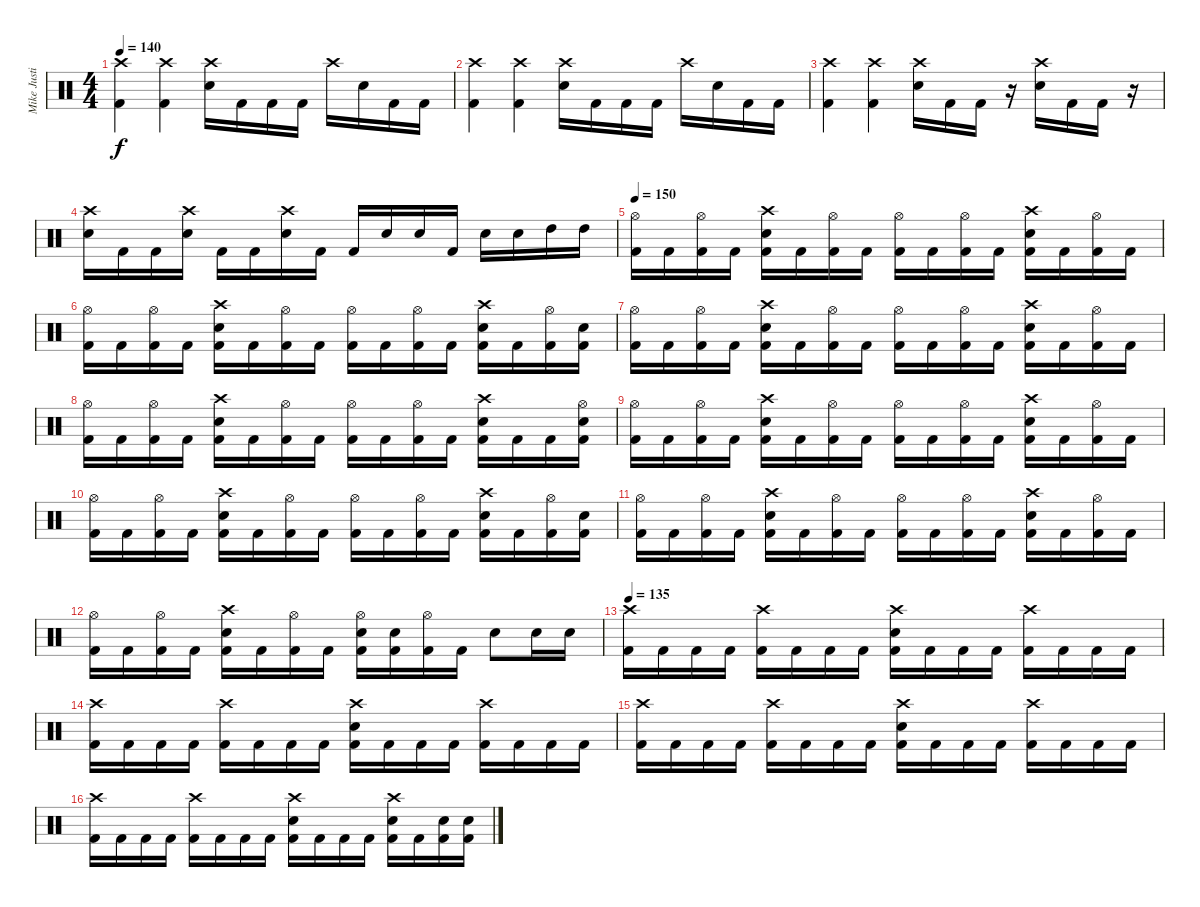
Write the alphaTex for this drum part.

\track ("Mike Justian" "Mike Justi") {instrument percussion}
\staff {score}
\articulation defaults
\ts (4 4)
\tempo 140
\clef neutral
\ks c
("Crash high (hit)" "Kick (hit) 2").4{dy f} ("Crash high (hit)" "Kick (hit) 2").4 ("Crash high (hit)" "Electric Snare (hit)").16 "Kick (hit) 2".16 "Kick (hit) 2".16 "Kick (hit) 2".16 "Crash high (hit)".16 "Electric Snare (hit)".16 "Kick (hit) 2".16 "Kick (hit) 2".16 |
("Crash high (hit)" "Kick (hit) 2").4 ("Crash high (hit)" "Kick (hit) 2").4 ("Crash high (hit)" "Electric Snare (hit)").16 "Kick (hit) 2".16 "Kick (hit) 2".16 "Kick (hit) 2".16 "Crash high (hit)".16 "Electric Snare (hit)".16 "Kick (hit) 2".16 "Kick (hit) 2".16 |
("Crash high (hit)" "Kick (hit) 2").4 ("Crash high (hit)" "Kick (hit) 2").4 ("Crash high (hit)" "Electric Snare (hit)").16 "Kick (hit) 2".16 "Kick (hit) 2".16 r.16 ("Crash high (hit)" "Electric Snare (hit)").16 "Kick (hit) 2".16 "Kick (hit) 2".16 r.16 |
("Crash high (hit)" "Electric Snare (hit)").16 "Kick (hit) 2".16 "Kick (hit) 2".16 ("Crash high (hit)" "Electric Snare (hit)").16 "Kick (hit) 2".16 "Kick (hit) 2".16 ("Crash high (hit)" "Electric Snare (hit)").16 "Kick (hit) 2".16 "Kick (hit) 2".16 "Electric Snare (hit)".16 "Electric Snare (hit)".16 "Kick (hit) 2".16 "Electric Snare (hit)".16 "Electric Snare (hit)".16 "High Tom (hit)".16 "High Tom (hit)".16 |
\tempo 150
("Hi-Hat (open)" "Kick (hit) 2").16 "Kick (hit) 2".16 ("Hi-Hat (open)" "Kick (hit) 2").16 "Kick (hit) 2".16 ("Crash high (hit)" "Electric Snare (hit)" "Kick (hit) 2").16 "Kick (hit) 2".16 ("Hi-Hat (open)" "Kick (hit) 2").16 "Kick (hit) 2".16 ("Hi-Hat (open)" "Kick (hit) 2").16 "Kick (hit) 2".16 ("Hi-Hat (open)" "Kick (hit) 2").16 "Kick (hit) 2".16 ("Crash high (hit)" "Electric Snare (hit)" "Kick (hit) 2").16 "Kick (hit) 2".16 ("Hi-Hat (open)" "Kick (hit) 2").16 "Kick (hit) 2".16 |
("Hi-Hat (open)" "Kick (hit) 2").16 "Kick (hit) 2".16 ("Hi-Hat (open)" "Kick (hit) 2").16 "Kick (hit) 2".16 ("Crash high (hit)" "Electric Snare (hit)" "Kick (hit) 2").16 "Kick (hit) 2".16 ("Hi-Hat (open)" "Kick (hit) 2").16 "Kick (hit) 2".16 ("Hi-Hat (open)" "Kick (hit) 2").16 "Kick (hit) 2".16 ("Hi-Hat (open)" "Kick (hit) 2").16 "Kick (hit) 2".16 ("Crash high (hit)" "Electric Snare (hit)" "Kick (hit) 2").16 "Kick (hit) 2".16 ("Hi-Hat (open)" "Kick (hit) 2").16 ("Electric Snare (hit)" "Kick (hit) 2").16 |
("Hi-Hat (open)" "Kick (hit) 2").16 "Kick (hit) 2".16 ("Hi-Hat (open)" "Kick (hit) 2").16 "Kick (hit) 2".16 ("Crash high (hit)" "Electric Snare (hit)" "Kick (hit) 2").16 "Kick (hit) 2".16 ("Hi-Hat (open)" "Kick (hit) 2").16 "Kick (hit) 2".16 ("Hi-Hat (open)" "Kick (hit) 2").16 "Kick (hit) 2".16 ("Hi-Hat (open)" "Kick (hit) 2").16 "Kick (hit) 2".16 ("Crash high (hit)" "Electric Snare (hit)" "Kick (hit) 2").16 "Kick (hit) 2".16 ("Hi-Hat (open)" "Kick (hit) 2").16 "Kick (hit) 2".16 |
("Hi-Hat (open)" "Kick (hit) 2").16 "Kick (hit) 2".16 ("Hi-Hat (open)" "Kick (hit) 2").16 "Kick (hit) 2".16 ("Crash high (hit)" "Electric Snare (hit)" "Kick (hit) 2").16 "Kick (hit) 2".16 ("Hi-Hat (open)" "Kick (hit) 2").16 "Kick (hit) 2".16 ("Hi-Hat (open)" "Kick (hit) 2").16 "Kick (hit) 2".16 ("Hi-Hat (open)" "Kick (hit) 2").16 "Kick (hit) 2".16 ("Crash high (hit)" "Electric Snare (hit)" "Kick (hit) 2").16 "Kick (hit) 2".16 "Kick (hit) 2".16 ("Hi-Hat (open)" "Electric Snare (hit)" "Kick (hit) 2").16 |
("Hi-Hat (open)" "Kick (hit) 2").16 "Kick (hit) 2".16 ("Hi-Hat (open)" "Kick (hit) 2").16 "Kick (hit) 2".16 ("Crash high (hit)" "Electric Snare (hit)" "Kick (hit) 2").16 "Kick (hit) 2".16 ("Hi-Hat (open)" "Kick (hit) 2").16 "Kick (hit) 2".16 ("Hi-Hat (open)" "Kick (hit) 2").16 "Kick (hit) 2".16 ("Hi-Hat (open)" "Kick (hit) 2").16 "Kick (hit) 2".16 ("Crash high (hit)" "Electric Snare (hit)" "Kick (hit) 2").16 "Kick (hit) 2".16 ("Hi-Hat (open)" "Kick (hit) 2").16 "Kick (hit) 2".16 |
("Hi-Hat (open)" "Kick (hit) 2").16 "Kick (hit) 2".16 ("Hi-Hat (open)" "Kick (hit) 2").16 "Kick (hit) 2".16 ("Crash high (hit)" "Electric Snare (hit)" "Kick (hit) 2").16 "Kick (hit) 2".16 ("Hi-Hat (open)" "Kick (hit) 2").16 "Kick (hit) 2".16 ("Hi-Hat (open)" "Kick (hit) 2").16 "Kick (hit) 2".16 ("Hi-Hat (open)" "Kick (hit) 2").16 "Kick (hit) 2".16 ("Crash high (hit)" "Electric Snare (hit)" "Kick (hit) 2").16 "Kick (hit) 2".16 ("Hi-Hat (open)" "Kick (hit) 2").16 ("Electric Snare (hit)" "Kick (hit) 2").16 |
("Hi-Hat (open)" "Kick (hit) 2").16 "Kick (hit) 2".16 ("Hi-Hat (open)" "Kick (hit) 2").16 "Kick (hit) 2".16 ("Crash high (hit)" "Electric Snare (hit)" "Kick (hit) 2").16 "Kick (hit) 2".16 ("Hi-Hat (open)" "Kick (hit) 2").16 "Kick (hit) 2".16 ("Hi-Hat (open)" "Kick (hit) 2").16 "Kick (hit) 2".16 ("Hi-Hat (open)" "Kick (hit) 2").16 "Kick (hit) 2".16 ("Crash high (hit)" "Electric Snare (hit)" "Kick (hit) 2").16 "Kick (hit) 2".16 ("Hi-Hat (open)" "Kick (hit) 2").16 "Kick (hit) 2".16 |
("Hi-Hat (open)" "Kick (hit) 2").16 "Kick (hit) 2".16 ("Hi-Hat (open)" "Kick (hit) 2").16 "Kick (hit) 2".16 ("Crash high (hit)" "Electric Snare (hit)" "Kick (hit) 2").16 "Kick (hit) 2".16 ("Hi-Hat (open)" "Kick (hit) 2").16 "Kick (hit) 2".16 ("Hi-Hat (open)" "Electric Snare (hit)" "Kick (hit) 2").16 ("Electric Snare (hit)" "Kick (hit) 2").16 ("Hi-Hat (open)" "Kick (hit) 2").16 "Kick (hit) 2".16 "Electric Snare (hit)".8 "Electric Snare (hit)".16 "Electric Snare (hit)".16 |
\tempo 135
("Crash high (hit)" "Kick (hit) 2").16 "Kick (hit) 2".16 "Kick (hit) 2".16 "Kick (hit) 2".16 ("Crash high (hit)" "Kick (hit) 2").16 "Kick (hit) 2".16 "Kick (hit) 2".16 "Kick (hit) 2".16 ("Crash high (hit)" "Electric Snare (hit)" "Kick (hit) 2").16 "Kick (hit) 2".16 "Kick (hit) 2".16 "Kick (hit) 2".16 ("Crash high (hit)" "Kick (hit) 2").16 "Kick (hit) 2".16 "Kick (hit) 2".16 "Kick (hit) 2".16 |
("Crash high (hit)" "Kick (hit) 2").16 "Kick (hit) 2".16 "Kick (hit) 2".16 "Kick (hit) 2".16 ("Crash high (hit)" "Kick (hit) 2").16 "Kick (hit) 2".16 "Kick (hit) 2".16 "Kick (hit) 2".16 ("Crash high (hit)" "Electric Snare (hit)" "Kick (hit) 2").16 "Kick (hit) 2".16 "Kick (hit) 2".16 "Kick (hit) 2".16 ("Crash high (hit)" "Kick (hit) 2").16 "Kick (hit) 2".16 "Kick (hit) 2".16 "Kick (hit) 2".16 |
("Crash high (hit)" "Kick (hit) 2").16 "Kick (hit) 2".16 "Kick (hit) 2".16 "Kick (hit) 2".16 ("Crash high (hit)" "Kick (hit) 2").16 "Kick (hit) 2".16 "Kick (hit) 2".16 "Kick (hit) 2".16 ("Crash high (hit)" "Electric Snare (hit)" "Kick (hit) 2").16 "Kick (hit) 2".16 "Kick (hit) 2".16 "Kick (hit) 2".16 ("Crash high (hit)" "Kick (hit) 2").16 "Kick (hit) 2".16 "Kick (hit) 2".16 "Kick (hit) 2".16 |
("Crash high (hit)" "Kick (hit) 2").16 "Kick (hit) 2".16 "Kick (hit) 2".16 "Kick (hit) 2".16 ("Crash high (hit)" "Kick (hit) 2").16 "Kick (hit) 2".16 "Kick (hit) 2".16 "Kick (hit) 2".16 ("Crash high (hit)" "Electric Snare (hit)" "Kick (hit) 2").16 "Kick (hit) 2".16 "Kick (hit) 2".16 "Kick (hit) 2".16 ("Crash high (hit)" "Electric Snare (hit)" "Kick (hit) 2").16 "Kick (hit) 2".16 ("Electric Snare (hit)" "Kick (hit) 2").16 ("Electric Snare (hit)" "Kick (hit) 2").16
